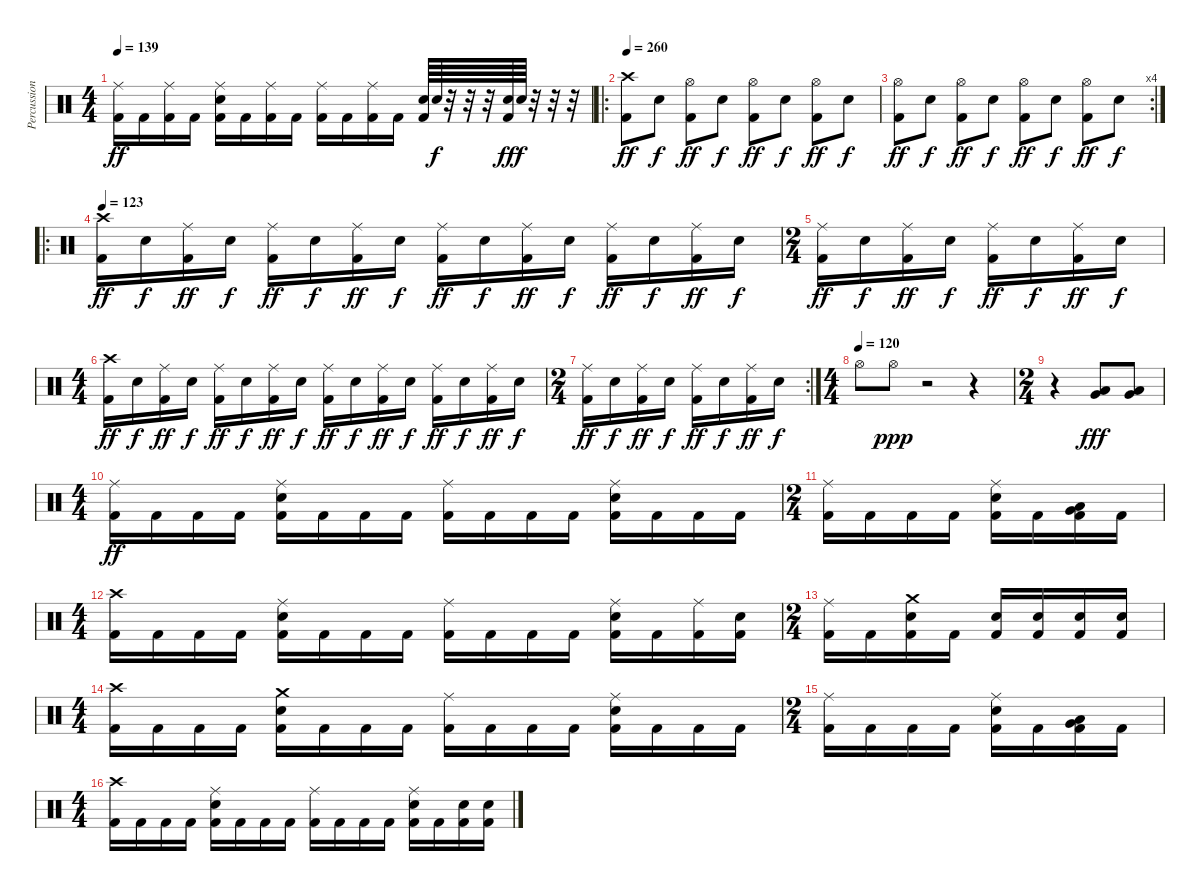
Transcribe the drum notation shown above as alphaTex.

\track ("Percussion" "Percussion") {instrument percussion}
\staff {score}
\articulation defaults
\ts (4 4)
\tempo 139
\clef neutral
\ks c
("Ride (middle)" "Kick (hit) 2").16{dy ff} "Kick (hit) 2".16 ("Ride (middle)" "Kick (hit) 2").16 "Kick (hit) 2".16 ("Ride (middle)" "Electric Snare (hit)" "Kick (hit) 2").16 "Kick (hit) 2".16 ("Ride (middle)" "Kick (hit) 2").16 "Kick (hit) 2".16 ("Ride (middle)" "Kick (hit) 2").16 "Kick (hit) 2".16 ("Ride (middle)" "Kick (hit) 2").16 "Kick (hit) 2".16 ("Electric Snare (hit)" "Kick (hit) 2").64 "Electric Snare (hit)".64{dy f} r.32 r.32 r.32 ("Electric Snare (hit)" "Kick (hit) 2").64{dy ff} "Electric Snare (hit)".64{dy f} r.32 r.32 r.32 |
\ro
\tempo 260
("Crash high (hit)" "Kick (hit) 2").8{dy ff} "Electric Snare (hit)".8{dy f} ("Hi-Hat (open)" "Kick (hit) 2").8{dy ff} "Electric Snare (hit)".8{dy f} ("Hi-Hat (open)" "Kick (hit) 2").8{dy ff} "Electric Snare (hit)".8{dy f} ("Hi-Hat (open)" "Kick (hit) 2").8{dy ff} "Electric Snare (hit)".8{dy f} |
\rc 4
("Hi-Hat (open)" "Kick (hit) 2").8{dy ff} "Electric Snare (hit)".8{dy f} ("Hi-Hat (open)" "Kick (hit) 2").8{dy ff} "Electric Snare (hit)".8{dy f} ("Hi-Hat (open)" "Kick (hit) 2").8{dy ff} "Electric Snare (hit)".8{dy f} ("Hi-Hat (open)" "Kick (hit) 2").8{dy ff} "Electric Snare (hit)".8{dy f} |
\ro
\tempo 123
("Crash high (hit)" "Kick (hit) 2").16{dy ff} "Electric Snare (hit)".16{dy f} ("Ride (middle)" "Kick (hit) 2").16{dy ff} "Electric Snare (hit)".16{dy f} ("Ride (middle)" "Kick (hit) 2").16{dy ff} "Electric Snare (hit)".16{dy f} ("Ride (middle)" "Kick (hit) 2").16{dy ff} "Electric Snare (hit)".16{dy f} ("Ride (middle)" "Kick (hit) 2").16{dy ff} "Electric Snare (hit)".16{dy f} ("Ride (middle)" "Kick (hit) 2").16{dy ff} "Electric Snare (hit)".16{dy f} ("Ride (middle)" "Kick (hit) 2").16{dy ff} "Electric Snare (hit)".16{dy f} ("Ride (middle)" "Kick (hit) 2").16{dy ff} "Electric Snare (hit)".16{dy f} |
\ts (2 4)
("Ride (middle)" "Kick (hit) 2").16{dy ff} "Electric Snare (hit)".16{dy f} ("Ride (middle)" "Kick (hit) 2").16{dy ff} "Electric Snare (hit)".16{dy f} ("Ride (middle)" "Kick (hit) 2").16{dy ff} "Electric Snare (hit)".16{dy f} ("Ride (middle)" "Kick (hit) 2").16{dy ff} "Electric Snare (hit)".16{dy f} |
\ts (4 4)
("Crash high (hit)" "Kick (hit) 2").16{dy ff} "Electric Snare (hit)".16{dy f} ("Ride (middle)" "Kick (hit) 2").16{dy ff} "Electric Snare (hit)".16{dy f} ("Ride (middle)" "Kick (hit) 2").16{dy ff} "Electric Snare (hit)".16{dy f} ("Ride (middle)" "Kick (hit) 2").16{dy ff} "Electric Snare (hit)".16{dy f} ("Ride (middle)" "Kick (hit) 2").16{dy ff} "Electric Snare (hit)".16{dy f} ("Ride (middle)" "Kick (hit) 2").16{dy ff} "Electric Snare (hit)".16{dy f} ("Ride (middle)" "Kick (hit) 2").16{dy ff} "Electric Snare (hit)".16{dy f} ("Ride (middle)" "Kick (hit) 2").16{dy ff} "Electric Snare (hit)".16{dy f} |
\rc 2
\ts (2 4)
("Ride (middle)" "Kick (hit) 2").16{dy ff} "Electric Snare (hit)".16{dy f} ("Ride (middle)" "Kick (hit) 2").16{dy ff} "Electric Snare (hit)".16{dy f} ("Ride (middle)" "Kick (hit) 2").16{dy ff} "Electric Snare (hit)".16{dy f} ("Ride (middle)" "Kick (hit) 2").16{dy ff} "Electric Snare (hit)".16{dy f} |
\ts (4 4)
\tempo (120)
"Hi-Hat (open)".8 "Hi-Hat (open)".8{dy ppp} r.2 r.4 |
\ts (2 4)
r.4 ("Low Tom (hit)" "Very Low Tom (hit)").8{dy fff} ("Low Tom (hit)" "Very Low Tom (hit)").8 |
\ts (4 4)
("Ride (middle)" "Kick (hit) 2").16{dy ff} "Kick (hit) 2".16 "Kick (hit) 2".16 "Kick (hit) 2".16 ("Ride (middle)" "Electric Snare (hit)" "Kick (hit) 2").16 "Kick (hit) 2".16 "Kick (hit) 2".16 "Kick (hit) 2".16 ("Ride (middle)" "Kick (hit) 2").16 "Kick (hit) 2".16 "Kick (hit) 2".16 "Kick (hit) 2".16 ("Ride (middle)" "Electric Snare (hit)" "Kick (hit) 2").16 "Kick (hit) 2".16 "Kick (hit) 2".16 "Kick (hit) 2".16 |
\ts (2 4)
("Ride (middle)" "Kick (hit) 2").16 "Kick (hit) 2".16 "Kick (hit) 2".16 "Kick (hit) 2".16 ("Ride (middle)" "Electric Snare (hit)" "Kick (hit) 2").16 "Kick (hit) 2".16 ("Low Tom (hit)" "Very Low Tom (hit)" "Kick (hit) 2").16 "Kick (hit) 2".16 |
\ts (4 4)
("Crash high (hit)" "Kick (hit) 2").16 "Kick (hit) 2".16 "Kick (hit) 2".16 "Kick (hit) 2".16 ("Ride (middle)" "Electric Snare (hit)" "Kick (hit) 2").16 "Kick (hit) 2".16 "Kick (hit) 2".16 "Kick (hit) 2".16 ("Ride (middle)" "Kick (hit) 2").16 "Kick (hit) 2".16 "Kick (hit) 2".16 "Kick (hit) 2".16 ("Ride (middle)" "Electric Snare (hit)" "Kick (hit) 2").16 "Kick (hit) 2".16 ("Ride (middle)" "Kick (hit) 2").16 ("Electric Snare (hit)" "Kick (hit) 2").16 |
\ts (2 4)
("Ride (middle)" "Kick (hit) 2").16 "Kick (hit) 2".16 ("Crash medium (hit)" "Electric Snare (hit)" "Kick (hit) 2").16 "Kick (hit) 2".16 ("Electric Snare (hit)" "Kick (hit) 2").16 ("Electric Snare (hit)" "Kick (hit) 2").16 ("Electric Snare (hit)" "Kick (hit) 2").16 ("Electric Snare (hit)" "Kick (hit) 2").16 |
\ts (4 4)
("Crash high (hit)" "Kick (hit) 2").16 "Kick (hit) 2".16 "Kick (hit) 2".16 "Kick (hit) 2".16 ("Crash medium (hit)" "Electric Snare (hit)" "Kick (hit) 2").16 "Kick (hit) 2".16 "Kick (hit) 2".16 "Kick (hit) 2".16 ("Ride (middle)" "Kick (hit) 2").16 "Kick (hit) 2".16 "Kick (hit) 2".16 "Kick (hit) 2".16 ("Ride (middle)" "Electric Snare (hit)" "Kick (hit) 2").16 "Kick (hit) 2".16 "Kick (hit) 2".16 "Kick (hit) 2".16 |
\ts (2 4)
("Ride (middle)" "Kick (hit) 2").16 "Kick (hit) 2".16 "Kick (hit) 2".16 "Kick (hit) 2".16 ("Ride (middle)" "Electric Snare (hit)" "Kick (hit) 2").16 "Kick (hit) 2".16 ("Low Tom (hit)" "Very Low Tom (hit)" "Kick (hit) 2").16 "Kick (hit) 2".16 |
\ts (4 4)
("Crash high (hit)" "Kick (hit) 2").16 "Kick (hit) 2".16 "Kick (hit) 2".16 "Kick (hit) 2".16 ("Ride (middle)" "Electric Snare (hit)" "Kick (hit) 2").16 "Kick (hit) 2".16 "Kick (hit) 2".16 "Kick (hit) 2".16 ("Ride (middle)" "Kick (hit) 2").16 "Kick (hit) 2".16 "Kick (hit) 2".16 "Kick (hit) 2".16 ("Ride (middle)" "Electric Snare (hit)" "Kick (hit) 2").16 "Kick (hit) 2".16 ("Electric Snare (hit)" "Kick (hit) 2").16 ("Electric Snare (hit)" "Kick (hit) 2").16
